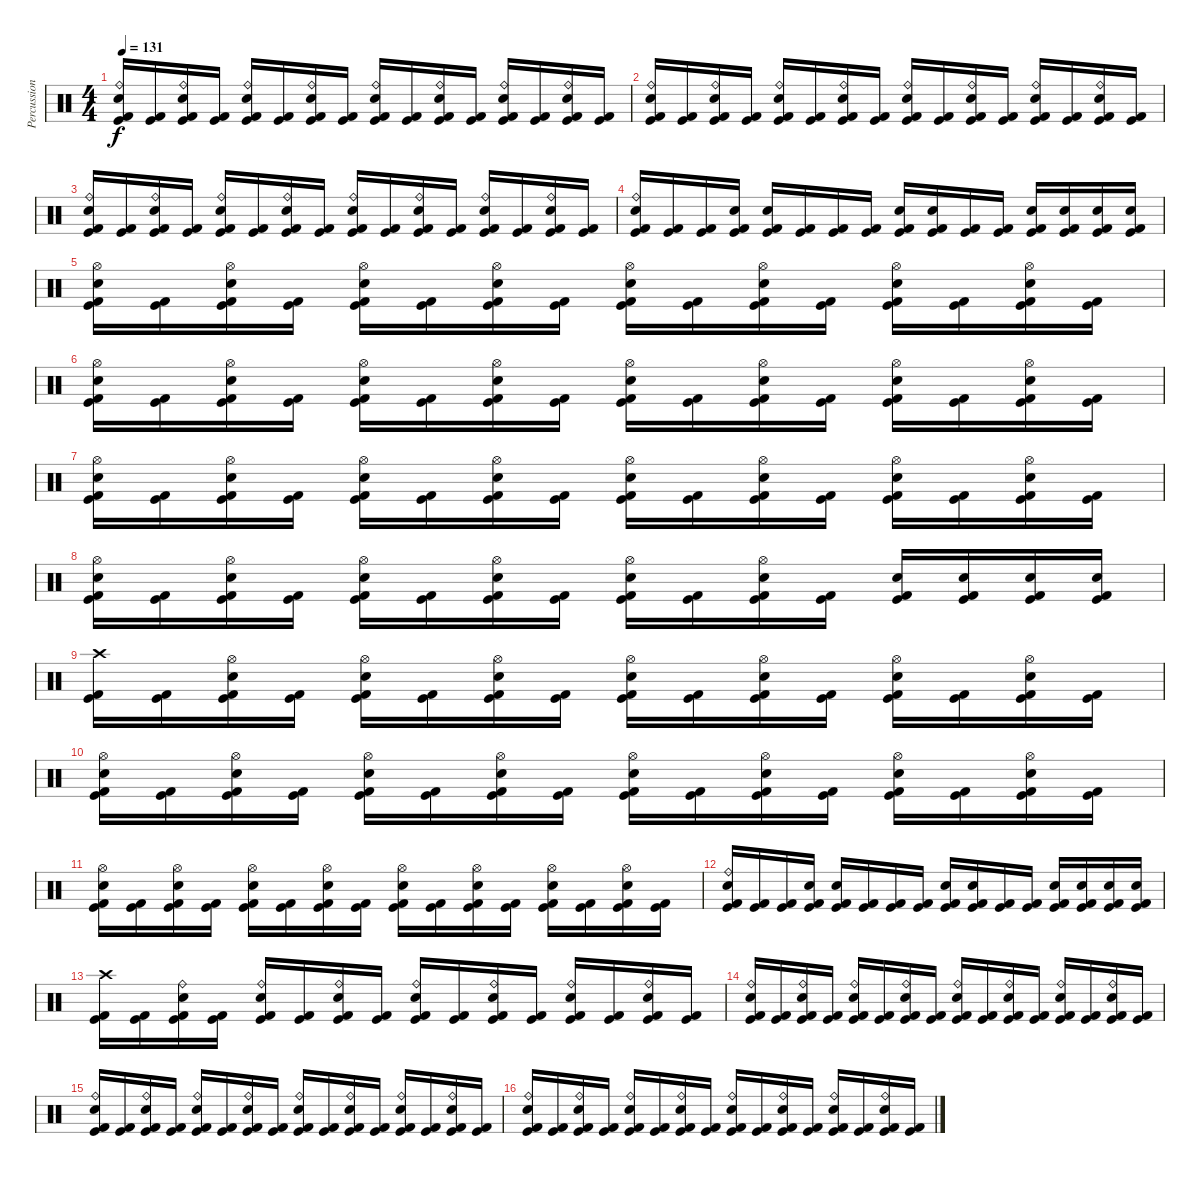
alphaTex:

\track ("Percussion" "Percussion") {instrument percussion}
\staff {score}
\articulation defaults
\ts (4 4)
\tempo 131
\clef neutral
\ks c
("Snare (hit) 2" "Ride (bell)" "Kick (hit)" "Kick (hit) 2").16{dy f} ("Kick (hit)" "Kick (hit) 2").16 ("Snare (hit) 2" "Ride (bell)" "Kick (hit)" "Kick (hit) 2").16 ("Kick (hit)" "Kick (hit) 2").16 ("Snare (hit) 2" "Ride (bell)" "Kick (hit)" "Kick (hit) 2").16 ("Kick (hit)" "Kick (hit) 2").16 ("Snare (hit) 2" "Ride (bell)" "Kick (hit)" "Kick (hit) 2").16 ("Kick (hit)" "Kick (hit) 2").16 ("Snare (hit) 2" "Ride (bell)" "Kick (hit)" "Kick (hit) 2").16 ("Kick (hit)" "Kick (hit) 2").16 ("Snare (hit) 2" "Ride (bell)" "Kick (hit)" "Kick (hit) 2").16 ("Kick (hit)" "Kick (hit) 2").16 ("Snare (hit) 2" "Ride (bell)" "Kick (hit)" "Kick (hit) 2").16 ("Kick (hit)" "Kick (hit) 2").16 ("Snare (hit) 2" "Ride (bell)" "Kick (hit)" "Kick (hit) 2").16 ("Kick (hit)" "Kick (hit) 2").16 |
("Snare (hit) 2" "Ride (bell)" "Kick (hit)" "Kick (hit) 2").16 ("Kick (hit)" "Kick (hit) 2").16 ("Snare (hit) 2" "Ride (bell)" "Kick (hit)" "Kick (hit) 2").16 ("Kick (hit)" "Kick (hit) 2").16 ("Snare (hit) 2" "Ride (bell)" "Kick (hit)" "Kick (hit) 2").16 ("Kick (hit)" "Kick (hit) 2").16 ("Snare (hit) 2" "Ride (bell)" "Kick (hit)" "Kick (hit) 2").16 ("Kick (hit)" "Kick (hit) 2").16 ("Snare (hit) 2" "Ride (bell)" "Kick (hit)" "Kick (hit) 2").16 ("Kick (hit)" "Kick (hit) 2").16 ("Snare (hit) 2" "Ride (bell)" "Kick (hit)" "Kick (hit) 2").16 ("Kick (hit)" "Kick (hit) 2").16 ("Snare (hit) 2" "Ride (bell)" "Kick (hit)" "Kick (hit) 2").16 ("Kick (hit)" "Kick (hit) 2").16 ("Snare (hit) 2" "Ride (bell)" "Kick (hit)" "Kick (hit) 2").16 ("Kick (hit)" "Kick (hit) 2").16 |
("Snare (hit) 2" "Ride (bell)" "Kick (hit)" "Kick (hit) 2").16 ("Kick (hit)" "Kick (hit) 2").16 ("Snare (hit) 2" "Ride (bell)" "Kick (hit)" "Kick (hit) 2").16 ("Kick (hit)" "Kick (hit) 2").16 ("Snare (hit) 2" "Ride (bell)" "Kick (hit)" "Kick (hit) 2").16 ("Kick (hit)" "Kick (hit) 2").16 ("Snare (hit) 2" "Ride (bell)" "Kick (hit)" "Kick (hit) 2").16 ("Kick (hit)" "Kick (hit) 2").16 ("Snare (hit) 2" "Ride (bell)" "Kick (hit)" "Kick (hit) 2").16 ("Kick (hit)" "Kick (hit) 2").16 ("Snare (hit) 2" "Ride (bell)" "Kick (hit)" "Kick (hit) 2").16 ("Kick (hit)" "Kick (hit) 2").16 ("Snare (hit) 2" "Ride (bell)" "Kick (hit)" "Kick (hit) 2").16 ("Kick (hit)" "Kick (hit) 2").16 ("Snare (hit) 2" "Ride (bell)" "Kick (hit)" "Kick (hit) 2").16 ("Kick (hit)" "Kick (hit) 2").16 |
("Snare (hit) 2" "Ride (bell)" "Kick (hit)" "Kick (hit) 2").16 ("Kick (hit)" "Kick (hit) 2").16 ("Kick (hit)" "Kick (hit) 2").16 ("Snare (hit) 2" "Kick (hit)" "Kick (hit) 2").16 ("Snare (hit) 2" "Kick (hit)" "Kick (hit) 2").16 ("Kick (hit)" "Kick (hit) 2").16 ("Kick (hit)" "Kick (hit) 2").16 ("Kick (hit)" "Kick (hit) 2").16 ("Snare (hit) 2" "Kick (hit)" "Kick (hit) 2").16 ("Snare (hit) 2" "Kick (hit)" "Kick (hit) 2").16 ("Kick (hit)" "Kick (hit) 2").16 ("Kick (hit)" "Kick (hit) 2").16 ("Snare (hit) 2" "Kick (hit)" "Kick (hit) 2").16 ("Snare (hit) 2" "Kick (hit)" "Kick (hit) 2").16 ("Snare (hit) 2" "Kick (hit)" "Kick (hit) 2").16 ("Snare (hit) 2" "Kick (hit)" "Kick (hit) 2").16 |
("Snare (hit) 2" "Hi-Hat (open)" "Kick (hit)" "Kick (hit) 2").16 ("Kick (hit)" "Kick (hit) 2").16 ("Snare (hit) 2" "Hi-Hat (open)" "Kick (hit)" "Kick (hit) 2").16 ("Kick (hit)" "Kick (hit) 2").16 ("Snare (hit) 2" "Hi-Hat (open)" "Kick (hit)" "Kick (hit) 2").16 ("Kick (hit)" "Kick (hit) 2").16 ("Snare (hit) 2" "Hi-Hat (open)" "Kick (hit)" "Kick (hit) 2").16 ("Kick (hit)" "Kick (hit) 2").16 ("Snare (hit) 2" "Hi-Hat (open)" "Kick (hit)" "Kick (hit) 2").16 ("Kick (hit)" "Kick (hit) 2").16 ("Snare (hit) 2" "Hi-Hat (open)" "Kick (hit)" "Kick (hit) 2").16 ("Kick (hit)" "Kick (hit) 2").16 ("Snare (hit) 2" "Hi-Hat (open)" "Kick (hit)" "Kick (hit) 2").16 ("Kick (hit)" "Kick (hit) 2").16 ("Snare (hit) 2" "Hi-Hat (open)" "Kick (hit)" "Kick (hit) 2").16 ("Kick (hit)" "Kick (hit) 2").16 |
("Snare (hit) 2" "Hi-Hat (open)" "Kick (hit)" "Kick (hit) 2").16 ("Kick (hit)" "Kick (hit) 2").16 ("Snare (hit) 2" "Hi-Hat (open)" "Kick (hit)" "Kick (hit) 2").16 ("Kick (hit)" "Kick (hit) 2").16 ("Snare (hit) 2" "Hi-Hat (open)" "Kick (hit)" "Kick (hit) 2").16 ("Kick (hit)" "Kick (hit) 2").16 ("Snare (hit) 2" "Hi-Hat (open)" "Kick (hit)" "Kick (hit) 2").16 ("Kick (hit)" "Kick (hit) 2").16 ("Snare (hit) 2" "Hi-Hat (open)" "Kick (hit)" "Kick (hit) 2").16 ("Kick (hit)" "Kick (hit) 2").16 ("Snare (hit) 2" "Hi-Hat (open)" "Kick (hit)" "Kick (hit) 2").16 ("Kick (hit)" "Kick (hit) 2").16 ("Snare (hit) 2" "Hi-Hat (open)" "Kick (hit)" "Kick (hit) 2").16 ("Kick (hit)" "Kick (hit) 2").16 ("Snare (hit) 2" "Hi-Hat (open)" "Kick (hit)" "Kick (hit) 2").16 ("Kick (hit)" "Kick (hit) 2").16 |
("Snare (hit) 2" "Hi-Hat (open)" "Kick (hit)" "Kick (hit) 2").16 ("Kick (hit)" "Kick (hit) 2").16 ("Snare (hit) 2" "Hi-Hat (open)" "Kick (hit)" "Kick (hit) 2").16 ("Kick (hit)" "Kick (hit) 2").16 ("Snare (hit) 2" "Hi-Hat (open)" "Kick (hit)" "Kick (hit) 2").16 ("Kick (hit)" "Kick (hit) 2").16 ("Snare (hit) 2" "Hi-Hat (open)" "Kick (hit)" "Kick (hit) 2").16 ("Kick (hit)" "Kick (hit) 2").16 ("Snare (hit) 2" "Hi-Hat (open)" "Kick (hit)" "Kick (hit) 2").16 ("Kick (hit)" "Kick (hit) 2").16 ("Snare (hit) 2" "Hi-Hat (open)" "Kick (hit)" "Kick (hit) 2").16 ("Kick (hit)" "Kick (hit) 2").16 ("Snare (hit) 2" "Hi-Hat (open)" "Kick (hit)" "Kick (hit) 2").16 ("Kick (hit)" "Kick (hit) 2").16 ("Snare (hit) 2" "Hi-Hat (open)" "Kick (hit)" "Kick (hit) 2").16 ("Kick (hit)" "Kick (hit) 2").16 |
("Snare (hit) 2" "Hi-Hat (open)" "Kick (hit)" "Kick (hit) 2").16 ("Kick (hit)" "Kick (hit) 2").16 ("Snare (hit) 2" "Hi-Hat (open)" "Kick (hit)" "Kick (hit) 2").16 ("Kick (hit)" "Kick (hit) 2").16 ("Snare (hit) 2" "Hi-Hat (open)" "Kick (hit)" "Kick (hit) 2").16 ("Kick (hit)" "Kick (hit) 2").16 ("Snare (hit) 2" "Hi-Hat (open)" "Kick (hit)" "Kick (hit) 2").16 ("Kick (hit)" "Kick (hit) 2").16 ("Snare (hit) 2" "Hi-Hat (open)" "Kick (hit)" "Kick (hit) 2").16 ("Kick (hit)" "Kick (hit) 2").16 ("Snare (hit) 2" "Hi-Hat (open)" "Kick (hit)" "Kick (hit) 2").16 ("Kick (hit)" "Kick (hit) 2").16 ("Snare (hit) 2" "Kick (hit)" "Kick (hit) 2").16 ("Snare (hit) 2" "Kick (hit)" "Kick (hit) 2").16 ("Snare (hit) 2" "Kick (hit)" "Kick (hit) 2").16 ("Snare (hit) 2" "Kick (hit)" "Kick (hit) 2").16 |
("Crash high (hit)" "Kick (hit)" "Kick (hit) 2").16 ("Kick (hit)" "Kick (hit) 2").16 ("Snare (hit) 2" "Hi-Hat (open)" "Kick (hit)" "Kick (hit) 2").16 ("Kick (hit)" "Kick (hit) 2").16 ("Snare (hit) 2" "Hi-Hat (open)" "Kick (hit)" "Kick (hit) 2").16 ("Kick (hit)" "Kick (hit) 2").16 ("Snare (hit) 2" "Hi-Hat (open)" "Kick (hit)" "Kick (hit) 2").16 ("Kick (hit)" "Kick (hit) 2").16 ("Snare (hit) 2" "Hi-Hat (open)" "Kick (hit)" "Kick (hit) 2").16 ("Kick (hit)" "Kick (hit) 2").16 ("Snare (hit) 2" "Hi-Hat (open)" "Kick (hit)" "Kick (hit) 2").16 ("Kick (hit)" "Kick (hit) 2").16 ("Snare (hit) 2" "Hi-Hat (open)" "Kick (hit)" "Kick (hit) 2").16 ("Kick (hit)" "Kick (hit) 2").16 ("Snare (hit) 2" "Hi-Hat (open)" "Kick (hit)" "Kick (hit) 2").16 ("Kick (hit)" "Kick (hit) 2").16 |
("Snare (hit) 2" "Hi-Hat (open)" "Kick (hit)" "Kick (hit) 2").16 ("Kick (hit)" "Kick (hit) 2").16 ("Snare (hit) 2" "Hi-Hat (open)" "Kick (hit)" "Kick (hit) 2").16 ("Kick (hit)" "Kick (hit) 2").16 ("Snare (hit) 2" "Hi-Hat (open)" "Kick (hit)" "Kick (hit) 2").16 ("Kick (hit)" "Kick (hit) 2").16 ("Snare (hit) 2" "Hi-Hat (open)" "Kick (hit)" "Kick (hit) 2").16 ("Kick (hit)" "Kick (hit) 2").16 ("Snare (hit) 2" "Hi-Hat (open)" "Kick (hit)" "Kick (hit) 2").16 ("Kick (hit)" "Kick (hit) 2").16 ("Snare (hit) 2" "Hi-Hat (open)" "Kick (hit)" "Kick (hit) 2").16 ("Kick (hit)" "Kick (hit) 2").16 ("Snare (hit) 2" "Hi-Hat (open)" "Kick (hit)" "Kick (hit) 2").16 ("Kick (hit)" "Kick (hit) 2").16 ("Snare (hit) 2" "Hi-Hat (open)" "Kick (hit)" "Kick (hit) 2").16 ("Kick (hit)" "Kick (hit) 2").16 |
("Snare (hit) 2" "Hi-Hat (open)" "Kick (hit)" "Kick (hit) 2").16 ("Kick (hit)" "Kick (hit) 2").16 ("Snare (hit) 2" "Hi-Hat (open)" "Kick (hit)" "Kick (hit) 2").16 ("Kick (hit)" "Kick (hit) 2").16 ("Snare (hit) 2" "Hi-Hat (open)" "Kick (hit)" "Kick (hit) 2").16 ("Kick (hit)" "Kick (hit) 2").16 ("Snare (hit) 2" "Hi-Hat (open)" "Kick (hit)" "Kick (hit) 2").16 ("Kick (hit)" "Kick (hit) 2").16 ("Snare (hit) 2" "Hi-Hat (open)" "Kick (hit)" "Kick (hit) 2").16 ("Kick (hit)" "Kick (hit) 2").16 ("Snare (hit) 2" "Hi-Hat (open)" "Kick (hit)" "Kick (hit) 2").16 ("Kick (hit)" "Kick (hit) 2").16 ("Snare (hit) 2" "Hi-Hat (open)" "Kick (hit)" "Kick (hit) 2").16 ("Kick (hit)" "Kick (hit) 2").16 ("Snare (hit) 2" "Hi-Hat (open)" "Kick (hit)" "Kick (hit) 2").16 ("Kick (hit)" "Kick (hit) 2").16 |
("Snare (hit) 2" "Ride (bell)" "Kick (hit)" "Kick (hit) 2").16 ("Kick (hit)" "Kick (hit) 2").16 ("Kick (hit)" "Kick (hit) 2").16 ("Snare (hit) 2" "Kick (hit)" "Kick (hit) 2").16 ("Snare (hit) 2" "Kick (hit)" "Kick (hit) 2").16 ("Kick (hit)" "Kick (hit) 2").16 ("Kick (hit)" "Kick (hit) 2").16 ("Kick (hit)" "Kick (hit) 2").16 ("Snare (hit) 2" "Kick (hit)" "Kick (hit) 2").16 ("Snare (hit) 2" "Kick (hit)" "Kick (hit) 2").16 ("Kick (hit)" "Kick (hit) 2").16 ("Kick (hit)" "Kick (hit) 2").16 ("Snare (hit) 2" "Kick (hit)" "Kick (hit) 2").16 ("Snare (hit) 2" "Kick (hit)" "Kick (hit) 2").16 ("Snare (hit) 2" "Kick (hit)" "Kick (hit) 2").16 ("Snare (hit) 2" "Kick (hit)" "Kick (hit) 2").16 |
("Crash high (hit)" "Kick (hit)" "Kick (hit) 2").16 ("Kick (hit)" "Kick (hit) 2").16 ("Snare (hit) 2" "Ride (bell)" "Kick (hit)" "Kick (hit) 2").16 ("Kick (hit)" "Kick (hit) 2").16 ("Snare (hit) 2" "Ride (bell)" "Kick (hit)" "Kick (hit) 2").16 ("Kick (hit)" "Kick (hit) 2").16 ("Snare (hit) 2" "Ride (bell)" "Kick (hit)" "Kick (hit) 2").16 ("Kick (hit)" "Kick (hit) 2").16 ("Snare (hit) 2" "Ride (bell)" "Kick (hit)" "Kick (hit) 2").16 ("Kick (hit)" "Kick (hit) 2").16 ("Snare (hit) 2" "Ride (bell)" "Kick (hit)" "Kick (hit) 2").16 ("Kick (hit)" "Kick (hit) 2").16 ("Snare (hit) 2" "Ride (bell)" "Kick (hit)" "Kick (hit) 2").16 ("Kick (hit)" "Kick (hit) 2").16 ("Snare (hit) 2" "Ride (bell)" "Kick (hit)" "Kick (hit) 2").16 ("Kick (hit)" "Kick (hit) 2").16 |
("Snare (hit) 2" "Ride (bell)" "Kick (hit)" "Kick (hit) 2").16 ("Kick (hit)" "Kick (hit) 2").16 ("Snare (hit) 2" "Ride (bell)" "Kick (hit)" "Kick (hit) 2").16 ("Kick (hit)" "Kick (hit) 2").16 ("Snare (hit) 2" "Ride (bell)" "Kick (hit)" "Kick (hit) 2").16 ("Kick (hit)" "Kick (hit) 2").16 ("Snare (hit) 2" "Ride (bell)" "Kick (hit)" "Kick (hit) 2").16 ("Kick (hit)" "Kick (hit) 2").16 ("Snare (hit) 2" "Ride (bell)" "Kick (hit)" "Kick (hit) 2").16 ("Kick (hit)" "Kick (hit) 2").16 ("Snare (hit) 2" "Ride (bell)" "Kick (hit)" "Kick (hit) 2").16 ("Kick (hit)" "Kick (hit) 2").16 ("Snare (hit) 2" "Ride (bell)" "Kick (hit)" "Kick (hit) 2").16 ("Kick (hit)" "Kick (hit) 2").16 ("Snare (hit) 2" "Ride (bell)" "Kick (hit)" "Kick (hit) 2").16 ("Kick (hit)" "Kick (hit) 2").16 |
("Snare (hit) 2" "Ride (bell)" "Kick (hit)" "Kick (hit) 2").16 ("Kick (hit)" "Kick (hit) 2").16 ("Snare (hit) 2" "Ride (bell)" "Kick (hit)" "Kick (hit) 2").16 ("Kick (hit)" "Kick (hit) 2").16 ("Snare (hit) 2" "Ride (bell)" "Kick (hit)" "Kick (hit) 2").16 ("Kick (hit)" "Kick (hit) 2").16 ("Snare (hit) 2" "Ride (bell)" "Kick (hit)" "Kick (hit) 2").16 ("Kick (hit)" "Kick (hit) 2").16 ("Snare (hit) 2" "Ride (bell)" "Kick (hit)" "Kick (hit) 2").16 ("Kick (hit)" "Kick (hit) 2").16 ("Snare (hit) 2" "Ride (bell)" "Kick (hit)" "Kick (hit) 2").16 ("Kick (hit)" "Kick (hit) 2").16 ("Snare (hit) 2" "Ride (bell)" "Kick (hit)" "Kick (hit) 2").16 ("Kick (hit)" "Kick (hit) 2").16 ("Snare (hit) 2" "Ride (bell)" "Kick (hit)" "Kick (hit) 2").16 ("Kick (hit)" "Kick (hit) 2").16 |
("Snare (hit) 2" "Ride (bell)" "Kick (hit)" "Kick (hit) 2").16 ("Kick (hit)" "Kick (hit) 2").16 ("Snare (hit) 2" "Ride (bell)" "Kick (hit)" "Kick (hit) 2").16 ("Kick (hit)" "Kick (hit) 2").16 ("Snare (hit) 2" "Ride (bell)" "Kick (hit)" "Kick (hit) 2").16 ("Kick (hit)" "Kick (hit) 2").16 ("Snare (hit) 2" "Ride (bell)" "Kick (hit)" "Kick (hit) 2").16 ("Kick (hit)" "Kick (hit) 2").16 ("Snare (hit) 2" "Ride (bell)" "Kick (hit)" "Kick (hit) 2").16 ("Kick (hit)" "Kick (hit) 2").16 ("Snare (hit) 2" "Ride (bell)" "Kick (hit)" "Kick (hit) 2").16 ("Kick (hit)" "Kick (hit) 2").16 ("Snare (hit) 2" "Ride (bell)" "Kick (hit)" "Kick (hit) 2").16 ("Kick (hit)" "Kick (hit) 2").16 ("Snare (hit) 2" "Ride (bell)" "Kick (hit)" "Kick (hit) 2").16 ("Kick (hit)" "Kick (hit) 2").16
